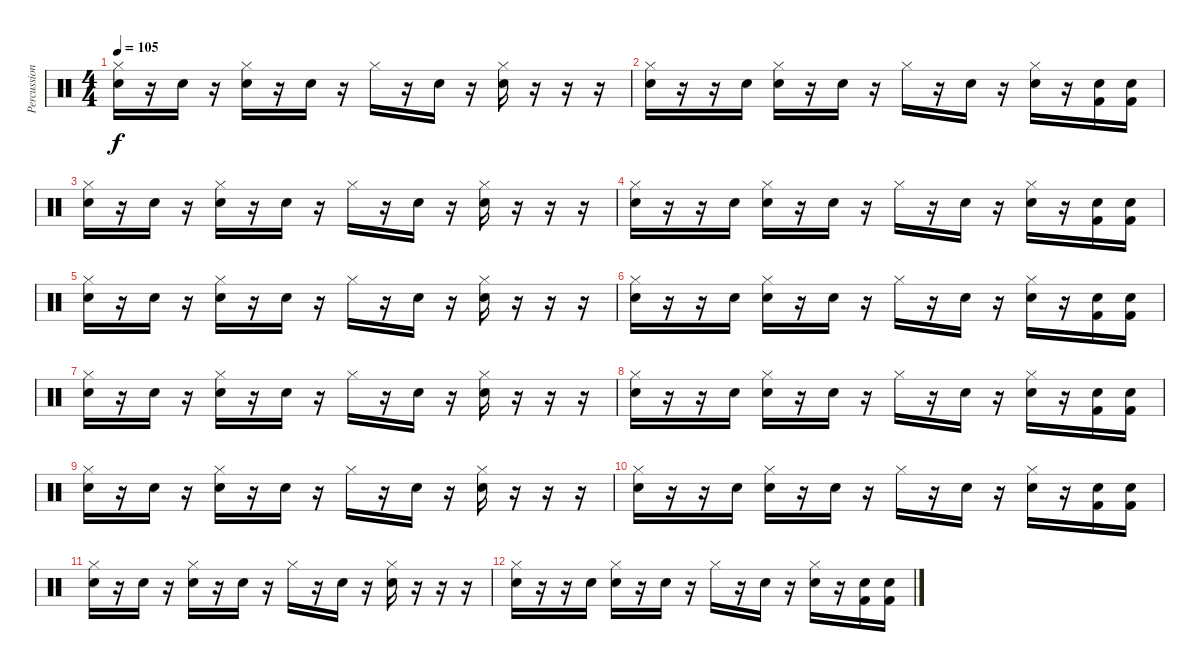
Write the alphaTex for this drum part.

\track ("Percussion" "Percussion") {instrument percussion}
\staff {score}
\articulation defaults
\ts (4 4)
\tempo 105
\clef neutral
\ks c
("Hi-Hat (closed)" "Snare (hit) 2").16{dy f} r.16 "Snare (hit) 2".16 r.16 ("Hi-Hat (closed)" "Snare (hit) 2").16 r.16 "Snare (hit) 2".16 r.16 "Hi-Hat (closed)".16 r.16 "Snare (hit) 2".16 r.16 ("Hi-Hat (closed)" "Snare (hit) 2").16 r.16 r.16 r.16 |
("Hi-Hat (closed)" "Snare (hit) 2").16 r.16 r.16 "Snare (hit) 2".16 ("Hi-Hat (closed)" "Snare (hit) 2").16 r.16 "Snare (hit) 2".16 r.16 "Hi-Hat (closed)".16 r.16 "Snare (hit) 2".16 r.16 ("Hi-Hat (closed)" "Snare (hit) 2").16 r.16 ("Snare (hit) 2" "Kick (hit) 2").16 ("Snare (hit) 2" "Kick (hit) 2").16 |
("Hi-Hat (closed)" "Snare (hit) 2").16 r.16 "Snare (hit) 2".16 r.16 ("Hi-Hat (closed)" "Snare (hit) 2").16 r.16 "Snare (hit) 2".16 r.16 "Hi-Hat (closed)".16 r.16 "Snare (hit) 2".16 r.16 ("Hi-Hat (closed)" "Snare (hit) 2").16 r.16 r.16 r.16 |
("Hi-Hat (closed)" "Snare (hit) 2").16 r.16 r.16 "Snare (hit) 2".16 ("Hi-Hat (closed)" "Snare (hit) 2").16 r.16 "Snare (hit) 2".16 r.16 "Hi-Hat (closed)".16 r.16 "Snare (hit) 2".16 r.16 ("Hi-Hat (closed)" "Snare (hit) 2").16 r.16 ("Snare (hit) 2" "Kick (hit) 2").16 ("Snare (hit) 2" "Kick (hit) 2").16 |
("Hi-Hat (closed)" "Snare (hit) 2").16 r.16 "Snare (hit) 2".16 r.16 ("Hi-Hat (closed)" "Snare (hit) 2").16 r.16 "Snare (hit) 2".16 r.16 "Hi-Hat (closed)".16 r.16 "Snare (hit) 2".16 r.16 ("Hi-Hat (closed)" "Snare (hit) 2").16 r.16 r.16 r.16 |
("Hi-Hat (closed)" "Snare (hit) 2").16 r.16 r.16 "Snare (hit) 2".16 ("Hi-Hat (closed)" "Snare (hit) 2").16 r.16 "Snare (hit) 2".16 r.16 "Hi-Hat (closed)".16 r.16 "Snare (hit) 2".16 r.16 ("Hi-Hat (closed)" "Snare (hit) 2").16 r.16 ("Snare (hit) 2" "Kick (hit) 2").16 ("Snare (hit) 2" "Kick (hit) 2").16 |
("Hi-Hat (closed)" "Snare (hit) 2").16 r.16 "Snare (hit) 2".16 r.16 ("Hi-Hat (closed)" "Snare (hit) 2").16 r.16 "Snare (hit) 2".16 r.16 "Hi-Hat (closed)".16 r.16 "Snare (hit) 2".16 r.16 ("Hi-Hat (closed)" "Snare (hit) 2").16 r.16 r.16 r.16 |
("Hi-Hat (closed)" "Snare (hit) 2").16 r.16 r.16 "Snare (hit) 2".16 ("Hi-Hat (closed)" "Snare (hit) 2").16 r.16 "Snare (hit) 2".16 r.16 "Hi-Hat (closed)".16 r.16 "Snare (hit) 2".16 r.16 ("Hi-Hat (closed)" "Snare (hit) 2").16 r.16 ("Snare (hit) 2" "Kick (hit) 2").16 ("Snare (hit) 2" "Kick (hit) 2").16 |
("Hi-Hat (closed)" "Snare (hit) 2").16 r.16 "Snare (hit) 2".16 r.16 ("Hi-Hat (closed)" "Snare (hit) 2").16 r.16 "Snare (hit) 2".16 r.16 "Hi-Hat (closed)".16 r.16 "Snare (hit) 2".16 r.16 ("Hi-Hat (closed)" "Snare (hit) 2").16 r.16 r.16 r.16 |
("Hi-Hat (closed)" "Snare (hit) 2").16 r.16 r.16 "Snare (hit) 2".16 ("Hi-Hat (closed)" "Snare (hit) 2").16 r.16 "Snare (hit) 2".16 r.16 "Hi-Hat (closed)".16 r.16 "Snare (hit) 2".16 r.16 ("Hi-Hat (closed)" "Snare (hit) 2").16 r.16 ("Snare (hit) 2" "Kick (hit) 2").16 ("Snare (hit) 2" "Kick (hit) 2").16 |
("Hi-Hat (closed)" "Snare (hit) 2").16 r.16 "Snare (hit) 2".16 r.16 ("Hi-Hat (closed)" "Snare (hit) 2").16 r.16 "Snare (hit) 2".16 r.16 "Hi-Hat (closed)".16 r.16 "Snare (hit) 2".16 r.16 ("Hi-Hat (closed)" "Snare (hit) 2").16 r.16 r.16 r.16 |
("Hi-Hat (closed)" "Snare (hit) 2").16 r.16 r.16 "Snare (hit) 2".16 ("Hi-Hat (closed)" "Snare (hit) 2").16 r.16 "Snare (hit) 2".16 r.16 "Hi-Hat (closed)".16 r.16 "Snare (hit) 2".16 r.16 ("Hi-Hat (closed)" "Snare (hit) 2").16 r.16 ("Snare (hit) 2" "Kick (hit) 2").16 ("Snare (hit) 2" "Kick (hit) 2").16
